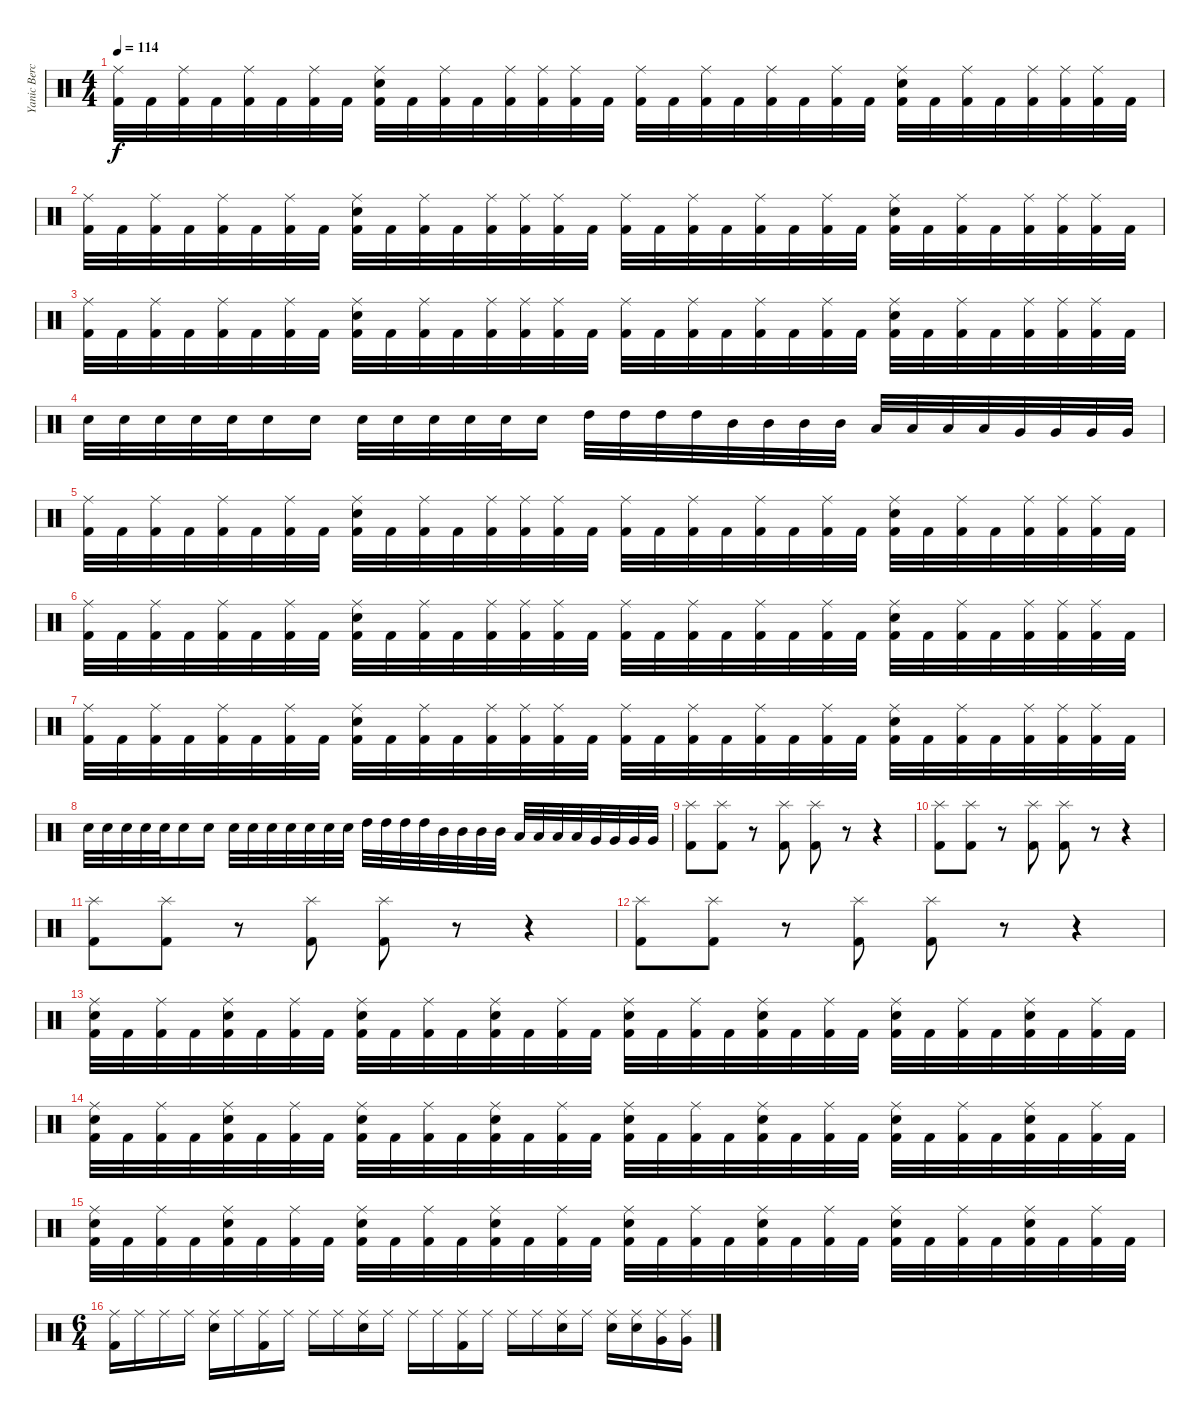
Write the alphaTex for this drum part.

\track ("Yanic Bercier" "Yanic Berc") {instrument percussion}
\staff {score}
\articulation defaults
\ts (4 4)
\tempo 114
\clef neutral
\ks c
("Ride (middle)" "Kick (hit) 2").32{dy f} "Kick (hit) 2".32 ("Ride (middle)" "Kick (hit) 2").32 "Kick (hit) 2".32 ("Ride (middle)" "Kick (hit) 2").32 "Kick (hit) 2".32 ("Ride (middle)" "Kick (hit) 2").32 "Kick (hit) 2".32 ("Ride (middle)" "Electric Snare (hit)" "Kick (hit) 2").32 "Kick (hit) 2".32 ("Ride (middle)" "Kick (hit) 2").32 "Kick (hit) 2".32 ("Ride (middle)" "Kick (hit) 2").32 ("Ride (middle)" "Kick (hit) 2").32 ("Ride (middle)" "Kick (hit) 2").32 "Kick (hit) 2".32 ("Ride (middle)" "Kick (hit) 2").32 "Kick (hit) 2".32 ("Ride (middle)" "Kick (hit) 2").32 "Kick (hit) 2".32 ("Ride (middle)" "Kick (hit) 2").32 "Kick (hit) 2".32 ("Ride (middle)" "Kick (hit) 2").32 "Kick (hit) 2".32 ("Ride (middle)" "Electric Snare (hit)" "Kick (hit) 2").32 "Kick (hit) 2".32 ("Ride (middle)" "Kick (hit) 2").32 "Kick (hit) 2".32 ("Ride (middle)" "Kick (hit) 2").32 ("Ride (middle)" "Kick (hit) 2").32 ("Ride (middle)" "Kick (hit) 2").32 "Kick (hit) 2".32 |
("Ride (middle)" "Kick (hit) 2").32 "Kick (hit) 2".32 ("Ride (middle)" "Kick (hit) 2").32 "Kick (hit) 2".32 ("Ride (middle)" "Kick (hit) 2").32 "Kick (hit) 2".32 ("Ride (middle)" "Kick (hit) 2").32 "Kick (hit) 2".32 ("Ride (middle)" "Electric Snare (hit)" "Kick (hit) 2").32 "Kick (hit) 2".32 ("Ride (middle)" "Kick (hit) 2").32 "Kick (hit) 2".32 ("Ride (middle)" "Kick (hit) 2").32 ("Ride (middle)" "Kick (hit) 2").32 ("Ride (middle)" "Kick (hit) 2").32 "Kick (hit) 2".32 ("Ride (middle)" "Kick (hit) 2").32 "Kick (hit) 2".32 ("Ride (middle)" "Kick (hit) 2").32 "Kick (hit) 2".32 ("Ride (middle)" "Kick (hit) 2").32 "Kick (hit) 2".32 ("Ride (middle)" "Kick (hit) 2").32 "Kick (hit) 2".32 ("Ride (middle)" "Electric Snare (hit)" "Kick (hit) 2").32 "Kick (hit) 2".32 ("Ride (middle)" "Kick (hit) 2").32 "Kick (hit) 2".32 ("Ride (middle)" "Kick (hit) 2").32 ("Ride (middle)" "Kick (hit) 2").32 ("Ride (middle)" "Kick (hit) 2").32 "Kick (hit) 2".32 |
("Ride (middle)" "Kick (hit) 2").32 "Kick (hit) 2".32 ("Ride (middle)" "Kick (hit) 2").32 "Kick (hit) 2".32 ("Ride (middle)" "Kick (hit) 2").32 "Kick (hit) 2".32 ("Ride (middle)" "Kick (hit) 2").32 "Kick (hit) 2".32 ("Ride (middle)" "Electric Snare (hit)" "Kick (hit) 2").32 "Kick (hit) 2".32 ("Ride (middle)" "Kick (hit) 2").32 "Kick (hit) 2".32 ("Ride (middle)" "Kick (hit) 2").32 ("Ride (middle)" "Kick (hit) 2").32 ("Ride (middle)" "Kick (hit) 2").32 "Kick (hit) 2".32 ("Ride (middle)" "Kick (hit) 2").32 "Kick (hit) 2".32 ("Ride (middle)" "Kick (hit) 2").32 "Kick (hit) 2".32 ("Ride (middle)" "Kick (hit) 2").32 "Kick (hit) 2".32 ("Ride (middle)" "Kick (hit) 2").32 "Kick (hit) 2".32 ("Ride (middle)" "Electric Snare (hit)" "Kick (hit) 2").32 "Kick (hit) 2".32 ("Ride (middle)" "Kick (hit) 2").32 "Kick (hit) 2".32 ("Ride (middle)" "Kick (hit) 2").32 ("Ride (middle)" "Kick (hit) 2").32 ("Ride (middle)" "Kick (hit) 2").32 "Kick (hit) 2".32 |
"Electric Snare (hit)".32 "Electric Snare (hit)".32 "Electric Snare (hit)".32 "Electric Snare (hit)".32 "Electric Snare (hit)".32 "Electric Snare (hit)".16 "Electric Snare (hit)".16 "Electric Snare (hit)".32 "Electric Snare (hit)".32 "Electric Snare (hit)".32 "Electric Snare (hit)".32 "Electric Snare (hit)".32 "Electric Snare (hit)".16 "High Tom (hit)".32 "High Tom (hit)".32 "High Tom (hit)".32 "High Tom (hit)".32 "Mid Tom (hit)".32 "Mid Tom (hit)".32 "Mid Tom (hit)".32 "Mid Tom (hit)".32 "Low Tom (hit)".32 "Low Tom (hit)".32 "Low Tom (hit)".32 "Low Tom (hit)".32 "Very Low Tom (hit)".32 "Very Low Tom (hit)".32 "Very Low Tom (hit)".32 "Very Low Tom (hit)".32 |
("Ride (middle)" "Kick (hit) 2").32 "Kick (hit) 2".32 ("Ride (middle)" "Kick (hit) 2").32 "Kick (hit) 2".32 ("Ride (middle)" "Kick (hit) 2").32 "Kick (hit) 2".32 ("Ride (middle)" "Kick (hit) 2").32 "Kick (hit) 2".32 ("Ride (middle)" "Electric Snare (hit)" "Kick (hit) 2").32 "Kick (hit) 2".32 ("Ride (middle)" "Kick (hit) 2").32 "Kick (hit) 2".32 ("Ride (middle)" "Kick (hit) 2").32 ("Ride (middle)" "Kick (hit) 2").32 ("Ride (middle)" "Kick (hit) 2").32 "Kick (hit) 2".32 ("Ride (middle)" "Kick (hit) 2").32 "Kick (hit) 2".32 ("Ride (middle)" "Kick (hit) 2").32 "Kick (hit) 2".32 ("Ride (middle)" "Kick (hit) 2").32 "Kick (hit) 2".32 ("Ride (middle)" "Kick (hit) 2").32 "Kick (hit) 2".32 ("Ride (middle)" "Electric Snare (hit)" "Kick (hit) 2").32 "Kick (hit) 2".32 ("Ride (middle)" "Kick (hit) 2").32 "Kick (hit) 2".32 ("Ride (middle)" "Kick (hit) 2").32 ("Ride (middle)" "Kick (hit) 2").32 ("Ride (middle)" "Kick (hit) 2").32 "Kick (hit) 2".32 |
("Ride (middle)" "Kick (hit) 2").32 "Kick (hit) 2".32 ("Ride (middle)" "Kick (hit) 2").32 "Kick (hit) 2".32 ("Ride (middle)" "Kick (hit) 2").32 "Kick (hit) 2".32 ("Ride (middle)" "Kick (hit) 2").32 "Kick (hit) 2".32 ("Ride (middle)" "Electric Snare (hit)" "Kick (hit) 2").32 "Kick (hit) 2".32 ("Ride (middle)" "Kick (hit) 2").32 "Kick (hit) 2".32 ("Ride (middle)" "Kick (hit) 2").32 ("Ride (middle)" "Kick (hit) 2").32 ("Ride (middle)" "Kick (hit) 2").32 "Kick (hit) 2".32 ("Ride (middle)" "Kick (hit) 2").32 "Kick (hit) 2".32 ("Ride (middle)" "Kick (hit) 2").32 "Kick (hit) 2".32 ("Ride (middle)" "Kick (hit) 2").32 "Kick (hit) 2".32 ("Ride (middle)" "Kick (hit) 2").32 "Kick (hit) 2".32 ("Ride (middle)" "Electric Snare (hit)" "Kick (hit) 2").32 "Kick (hit) 2".32 ("Ride (middle)" "Kick (hit) 2").32 "Kick (hit) 2".32 ("Ride (middle)" "Kick (hit) 2").32 ("Ride (middle)" "Kick (hit) 2").32 ("Ride (middle)" "Kick (hit) 2").32 "Kick (hit) 2".32 |
("Ride (middle)" "Kick (hit) 2").32 "Kick (hit) 2".32 ("Ride (middle)" "Kick (hit) 2").32 "Kick (hit) 2".32 ("Ride (middle)" "Kick (hit) 2").32 "Kick (hit) 2".32 ("Ride (middle)" "Kick (hit) 2").32 "Kick (hit) 2".32 ("Ride (middle)" "Electric Snare (hit)" "Kick (hit) 2").32 "Kick (hit) 2".32 ("Ride (middle)" "Kick (hit) 2").32 "Kick (hit) 2".32 ("Ride (middle)" "Kick (hit) 2").32 ("Ride (middle)" "Kick (hit) 2").32 ("Ride (middle)" "Kick (hit) 2").32 "Kick (hit) 2".32 ("Ride (middle)" "Kick (hit) 2").32 "Kick (hit) 2".32 ("Ride (middle)" "Kick (hit) 2").32 "Kick (hit) 2".32 ("Ride (middle)" "Kick (hit) 2").32 "Kick (hit) 2".32 ("Ride (middle)" "Kick (hit) 2").32 "Kick (hit) 2".32 ("Ride (middle)" "Electric Snare (hit)" "Kick (hit) 2").32 "Kick (hit) 2".32 ("Ride (middle)" "Kick (hit) 2").32 "Kick (hit) 2".32 ("Ride (middle)" "Kick (hit) 2").32 ("Ride (middle)" "Kick (hit) 2").32 ("Ride (middle)" "Kick (hit) 2").32 "Kick (hit) 2".32 |
"Electric Snare (hit)".32 "Electric Snare (hit)".32 "Electric Snare (hit)".32 "Electric Snare (hit)".32 "Electric Snare (hit)".32 "Electric Snare (hit)".16 "Electric Snare (hit)".16 "Electric Snare (hit)".32 "Electric Snare (hit)".32 "Electric Snare (hit)".32 "Electric Snare (hit)".32 "Electric Snare (hit)".32 "Electric Snare (hit)".32 "Electric Snare (hit)".32 "High Tom (hit)".32 "High Tom (hit)".32 "High Tom (hit)".32 "High Tom (hit)".32 "Mid Tom (hit)".32 "Mid Tom (hit)".32 "Mid Tom (hit)".32 "Mid Tom (hit)".32 "Low Tom (hit)".32 "Low Tom (hit)".32 "Low Tom (hit)".32 "Low Tom (hit)".32 "Very Low Tom (hit)".32 "Very Low Tom (hit)".32 "Very Low Tom (hit)".32 "Very Low Tom (hit)".32 |
("Splash (hit)" "Kick (hit) 2").8 ("Splash (hit)" "Kick (hit) 2").8 r.8 ("Splash (hit)" "Kick (hit) 2").8 ("Splash (hit)" "Kick (hit) 2").8 r.8 r.4 |
("Splash (hit)" "Kick (hit) 2").8 ("Splash (hit)" "Kick (hit) 2").8 r.8 ("Splash (hit)" "Kick (hit) 2").8 ("Splash (hit)" "Kick (hit) 2").8 r.8 r.4 |
("Splash (hit)" "Kick (hit) 2").8 ("Splash (hit)" "Kick (hit) 2").8 r.8 ("Splash (hit)" "Kick (hit) 2").8 ("Splash (hit)" "Kick (hit) 2").8 r.8 r.4 |
("Splash (hit)" "Kick (hit) 2").8 ("Splash (hit)" "Kick (hit) 2").8 r.8 ("Splash (hit)" "Kick (hit) 2").8 ("Splash (hit)" "Kick (hit) 2").8 r.8 r.4 |
("Ride (middle)" "Electric Snare (hit)" "Kick (hit) 2").32 "Kick (hit) 2".32 ("Ride (middle)" "Kick (hit) 2").32 "Kick (hit) 2".32 ("Ride (middle)" "Electric Snare (hit)" "Kick (hit) 2").32 "Kick (hit) 2".32 ("Ride (middle)" "Kick (hit) 2").32 "Kick (hit) 2".32 ("Ride (middle)" "Electric Snare (hit)" "Kick (hit) 2").32 "Kick (hit) 2".32 ("Ride (middle)" "Kick (hit) 2").32 "Kick (hit) 2".32 ("Ride (middle)" "Electric Snare (hit)" "Kick (hit) 2").32 "Kick (hit) 2".32 ("Ride (middle)" "Kick (hit) 2").32 "Kick (hit) 2".32 ("Ride (middle)" "Electric Snare (hit)" "Kick (hit) 2").32 "Kick (hit) 2".32 ("Ride (middle)" "Kick (hit) 2").32 "Kick (hit) 2".32 ("Ride (middle)" "Electric Snare (hit)" "Kick (hit) 2").32 "Kick (hit) 2".32 ("Ride (middle)" "Kick (hit) 2").32 "Kick (hit) 2".32 ("Ride (middle)" "Electric Snare (hit)" "Kick (hit) 2").32 "Kick (hit) 2".32 ("Ride (middle)" "Kick (hit) 2").32 "Kick (hit) 2".32 ("Ride (middle)" "Electric Snare (hit)" "Kick (hit) 2").32 "Kick (hit) 2".32 ("Ride (middle)" "Kick (hit) 2").32 "Kick (hit) 2".32 |
("Ride (middle)" "Electric Snare (hit)" "Kick (hit) 2").32 "Kick (hit) 2".32 ("Ride (middle)" "Kick (hit) 2").32 "Kick (hit) 2".32 ("Ride (middle)" "Electric Snare (hit)" "Kick (hit) 2").32 "Kick (hit) 2".32 ("Ride (middle)" "Kick (hit) 2").32 "Kick (hit) 2".32 ("Ride (middle)" "Electric Snare (hit)" "Kick (hit) 2").32 "Kick (hit) 2".32 ("Ride (middle)" "Kick (hit) 2").32 "Kick (hit) 2".32 ("Ride (middle)" "Electric Snare (hit)" "Kick (hit) 2").32 "Kick (hit) 2".32 ("Ride (middle)" "Kick (hit) 2").32 "Kick (hit) 2".32 ("Ride (middle)" "Electric Snare (hit)" "Kick (hit) 2").32 "Kick (hit) 2".32 ("Ride (middle)" "Kick (hit) 2").32 "Kick (hit) 2".32 ("Ride (middle)" "Electric Snare (hit)" "Kick (hit) 2").32 "Kick (hit) 2".32 ("Ride (middle)" "Kick (hit) 2").32 "Kick (hit) 2".32 ("Ride (middle)" "Electric Snare (hit)" "Kick (hit) 2").32 "Kick (hit) 2".32 ("Ride (middle)" "Kick (hit) 2").32 "Kick (hit) 2".32 ("Ride (middle)" "Electric Snare (hit)" "Kick (hit) 2").32 "Kick (hit) 2".32 ("Ride (middle)" "Kick (hit) 2").32 "Kick (hit) 2".32 |
("Ride (middle)" "Electric Snare (hit)" "Kick (hit) 2").32 "Kick (hit) 2".32 ("Ride (middle)" "Kick (hit) 2").32 "Kick (hit) 2".32 ("Ride (middle)" "Electric Snare (hit)" "Kick (hit) 2").32 "Kick (hit) 2".32 ("Ride (middle)" "Kick (hit) 2").32 "Kick (hit) 2".32 ("Ride (middle)" "Electric Snare (hit)" "Kick (hit) 2").32 "Kick (hit) 2".32 ("Ride (middle)" "Kick (hit) 2").32 "Kick (hit) 2".32 ("Ride (middle)" "Electric Snare (hit)" "Kick (hit) 2").32 "Kick (hit) 2".32 ("Ride (middle)" "Kick (hit) 2").32 "Kick (hit) 2".32 ("Ride (middle)" "Electric Snare (hit)" "Kick (hit) 2").32 "Kick (hit) 2".32 ("Ride (middle)" "Kick (hit) 2").32 "Kick (hit) 2".32 ("Ride (middle)" "Electric Snare (hit)" "Kick (hit) 2").32 "Kick (hit) 2".32 ("Ride (middle)" "Kick (hit) 2").32 "Kick (hit) 2".32 ("Ride (middle)" "Electric Snare (hit)" "Kick (hit) 2").32 "Kick (hit) 2".32 ("Ride (middle)" "Kick (hit) 2").32 "Kick (hit) 2".32 ("Ride (middle)" "Electric Snare (hit)" "Kick (hit) 2").32 "Kick (hit) 2".32 ("Ride (middle)" "Kick (hit) 2").32 "Kick (hit) 2".32 |
\ts (6 4)
("Ride (middle)" "Kick (hit) 2").16 "Ride (middle)".16 "Ride (middle)".16 "Ride (middle)".16 ("Ride (middle)" "Electric Snare (hit)").16 "Ride (middle)".16 ("Ride (middle)" "Kick (hit) 2").16 "Ride (middle)".16 "Ride (middle)".16 "Ride (middle)".16 ("Ride (middle)" "Electric Snare (hit)").16 "Ride (middle)".16 "Ride (middle)".16 "Ride (middle)".16 ("Ride (middle)" "Kick (hit) 2").16 "Ride (middle)".16 "Ride (middle)".16 "Ride (middle)".16 ("Ride (middle)" "Electric Snare (hit)").16 "Ride (middle)".16 ("Ride (middle)" "Electric Snare (hit)").16 ("Ride (middle)" "Electric Snare (hit)").16 ("Ride (middle)" "Very Low Tom (hit)").16 ("Ride (middle)" "Very Low Tom (hit)").16
